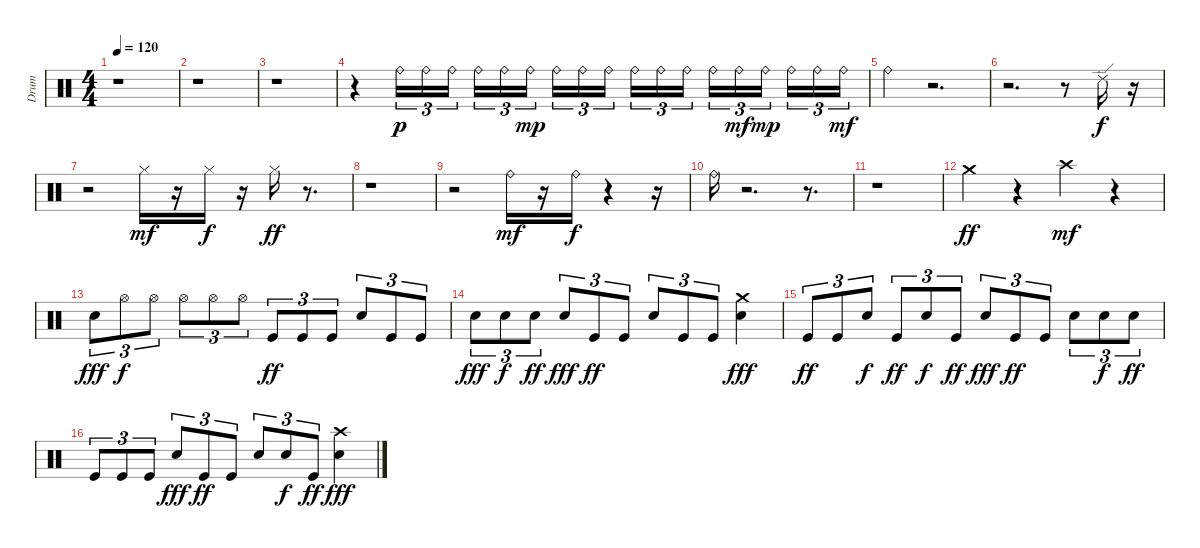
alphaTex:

\track ("Drum" "Drum") {instrument percussion}
\staff {score}
\articulation defaults
\ts (4 4)
\tempo 120
\clef neutral
\ks c
r.1{dy f} |
r.1 |
r.1 |
r.4 "Ride (bell)".16{tu (3 2) dy p} "Ride (bell)".16{tu (3 2)} "Ride (bell)".16{tu (3 2)} "Ride (bell)".16{tu (3 2)} "Ride (bell)".16{tu (3 2)} "Ride (bell)".16{tu (3 2) dy mp} "Ride (bell)".16{tu (3 2)} "Ride (bell)".16{tu (3 2)} "Ride (bell)".16{tu (3 2)} "Ride (bell)".16{tu (3 2)} "Ride (bell)".16{tu (3 2)} "Ride (bell)".16{tu (3 2)} "Ride (bell)".16{tu (3 2)} "Ride (bell)".16{tu (3 2) dy mf} "Ride (bell)".16{tu (3 2) dy mp} "Ride (bell)".16{tu (3 2)} "Ride (bell)".16{tu (3 2)} "Ride (bell)".16{tu (3 2) dy mf} |
"Ride (bell)".4 r.2{d} |
r.2{d} r.8 "Ride (edge) 2".16{dy f} r.16 |
r.2 "Hi-Hat (closed)".16{dy mf} r.16 "Hi-Hat (closed)".16{dy f} r.16 "Hi-Hat (closed)".16{dy ff} r.8{d} |
r.1 |
r.2 "Ride (bell)".16{dy mf} r.16 "Ride (bell)".16{dy f} r.4 r.16 |
"Ride (bell)".16 r.2{d} r.8{d} |
r.1 |
"Crash medium (hit)".4{dy ff} r.4 "Crash high (hit)".4{dy mf} r.4 |
"Snare (hit) 2".8{tu (3 2) dy fff} "Hi-Hat (open)".8{tu (3 2) dy f} "Hi-Hat (open)".8{tu (3 2)} "Hi-Hat (open)".8{tu (3 2)} "Hi-Hat (open)".8{tu (3 2)} "Hi-Hat (open)".8{tu (3 2)} "Kick (hit)".8{tu (3 2) dy ff} "Kick (hit)".8{tu (3 2)} "Kick (hit)".8{tu (3 2)} "Snare (hit) 2".8{tu (3 2)} "Kick (hit)".8{tu (3 2)} "Kick (hit)".8{tu (3 2)} |
"Snare (hit) 2".8{tu (3 2) dy fff} "Snare (hit) 2".8{tu (3 2) dy f} "Snare (hit) 2".8{tu (3 2) dy ff} "Snare (hit) 2".8{tu (3 2) dy fff} "Kick (hit)".8{tu (3 2) dy ff} "Kick (hit)".8{tu (3 2)} "Snare (hit) 2".8{tu (3 2)} "Kick (hit)".8{tu (3 2)} "Kick (hit)".8{tu (3 2)} ("Snare (hit) 2" "Crash medium (hit)").4{dy fff} |
"Kick (hit)".8{tu (3 2) dy ff} "Kick (hit)".8{tu (3 2)} "Snare (hit) 2".8{tu (3 2) dy f} "Kick (hit)".8{tu (3 2) dy ff} "Snare (hit) 2".8{tu (3 2) dy f} "Kick (hit)".8{tu (3 2) dy ff} "Snare (hit) 2".8{tu (3 2) dy fff} "Kick (hit)".8{tu (3 2) dy ff} "Kick (hit)".8{tu (3 2)} "Snare (hit) 2".8{tu (3 2)} "Snare (hit) 2".8{tu (3 2) dy f} "Snare (hit) 2".8{tu (3 2) dy ff} |
"Kick (hit)".8{tu (3 2)} "Kick (hit)".8{tu (3 2)} "Kick (hit)".8{tu (3 2)} "Snare (hit) 2".8{tu (3 2) dy fff} "Kick (hit)".8{tu (3 2) dy ff} "Kick (hit)".8{tu (3 2)} "Snare (hit) 2".8{tu (3 2)} "Snare (hit) 2".8{tu (3 2) dy f} "Kick (hit)".8{tu (3 2) dy ff} ("Crash high (hit)" "Snare (hit) 2").4{dy fff}
